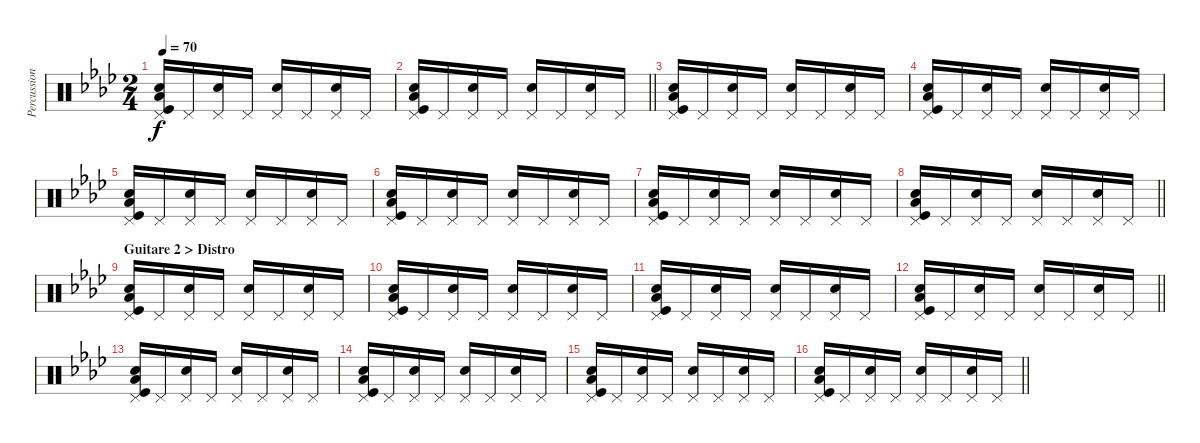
\track ("Percussions" "Percussion") {instrument percussion}
\staff {score}
\articulation defaults
\ts (2 4)
\tempo 70
\clef neutral
\ks fminor
("Electric Snare (hit)" "Kick (hit)" "Pedal Hi-Hat (hit)" "Low Floor Tom (hit)").16{dy f} "Pedal Hi-Hat (hit)".16 ("Electric Snare (hit)" "Pedal Hi-Hat (hit)").16 "Pedal Hi-Hat (hit)".16 ("Electric Snare (hit)" "Pedal Hi-Hat (hit)").16 "Pedal Hi-Hat (hit)".16 ("Electric Snare (hit)" "Pedal Hi-Hat (hit)").16 "Pedal Hi-Hat (hit)".16 |
\barLineRight lightlight
("Electric Snare (hit)" "Kick (hit)" "Pedal Hi-Hat (hit)" "Low Floor Tom (hit)").16 "Pedal Hi-Hat (hit)".16 ("Electric Snare (hit)" "Pedal Hi-Hat (hit)").16 "Pedal Hi-Hat (hit)".16 ("Electric Snare (hit)" "Pedal Hi-Hat (hit)").16 "Pedal Hi-Hat (hit)".16 ("Electric Snare (hit)" "Pedal Hi-Hat (hit)").16 "Pedal Hi-Hat (hit)".16 |
("Electric Snare (hit)" "Kick (hit)" "Pedal Hi-Hat (hit)" "Low Floor Tom (hit)").16 "Pedal Hi-Hat (hit)".16 ("Electric Snare (hit)" "Pedal Hi-Hat (hit)").16 "Pedal Hi-Hat (hit)".16 ("Electric Snare (hit)" "Pedal Hi-Hat (hit)").16 "Pedal Hi-Hat (hit)".16 ("Electric Snare (hit)" "Pedal Hi-Hat (hit)").16 "Pedal Hi-Hat (hit)".16 |
("Electric Snare (hit)" "Kick (hit)" "Pedal Hi-Hat (hit)" "Low Floor Tom (hit)").16 "Pedal Hi-Hat (hit)".16 ("Electric Snare (hit)" "Pedal Hi-Hat (hit)").16 "Pedal Hi-Hat (hit)".16 ("Electric Snare (hit)" "Pedal Hi-Hat (hit)").16 "Pedal Hi-Hat (hit)".16 ("Electric Snare (hit)" "Pedal Hi-Hat (hit)").16 "Pedal Hi-Hat (hit)".16 |
("Electric Snare (hit)" "Kick (hit)" "Pedal Hi-Hat (hit)" "Low Floor Tom (hit)").16 "Pedal Hi-Hat (hit)".16 ("Electric Snare (hit)" "Pedal Hi-Hat (hit)").16 "Pedal Hi-Hat (hit)".16 ("Electric Snare (hit)" "Pedal Hi-Hat (hit)").16 "Pedal Hi-Hat (hit)".16 ("Electric Snare (hit)" "Pedal Hi-Hat (hit)").16 "Pedal Hi-Hat (hit)".16 |
("Electric Snare (hit)" "Kick (hit)" "Pedal Hi-Hat (hit)" "Low Floor Tom (hit)").16 "Pedal Hi-Hat (hit)".16 ("Electric Snare (hit)" "Pedal Hi-Hat (hit)").16 "Pedal Hi-Hat (hit)".16 ("Electric Snare (hit)" "Pedal Hi-Hat (hit)").16 "Pedal Hi-Hat (hit)".16 ("Electric Snare (hit)" "Pedal Hi-Hat (hit)").16 "Pedal Hi-Hat (hit)".16 |
("Electric Snare (hit)" "Kick (hit)" "Pedal Hi-Hat (hit)" "Low Floor Tom (hit)").16 "Pedal Hi-Hat (hit)".16 ("Electric Snare (hit)" "Pedal Hi-Hat (hit)").16 "Pedal Hi-Hat (hit)".16 ("Electric Snare (hit)" "Pedal Hi-Hat (hit)").16 "Pedal Hi-Hat (hit)".16 ("Electric Snare (hit)" "Pedal Hi-Hat (hit)").16 "Pedal Hi-Hat (hit)".16 |
\barLineRight lightlight
("Electric Snare (hit)" "Kick (hit)" "Pedal Hi-Hat (hit)" "Low Floor Tom (hit)").16 "Pedal Hi-Hat (hit)".16 ("Electric Snare (hit)" "Pedal Hi-Hat (hit)").16 "Pedal Hi-Hat (hit)".16 ("Electric Snare (hit)" "Pedal Hi-Hat (hit)").16 "Pedal Hi-Hat (hit)".16 ("Electric Snare (hit)" "Pedal Hi-Hat (hit)").16 "Pedal Hi-Hat (hit)".16 |
\section ("" "Guitare 2 > Distro")
("Electric Snare (hit)" "Kick (hit)" "Pedal Hi-Hat (hit)" "Low Floor Tom (hit)").16{volume 10} "Pedal Hi-Hat (hit)".16 ("Electric Snare (hit)" "Pedal Hi-Hat (hit)").16 "Pedal Hi-Hat (hit)".16 ("Electric Snare (hit)" "Pedal Hi-Hat (hit)").16 "Pedal Hi-Hat (hit)".16 ("Electric Snare (hit)" "Pedal Hi-Hat (hit)").16 "Pedal Hi-Hat (hit)".16 |
("Electric Snare (hit)" "Kick (hit)" "Pedal Hi-Hat (hit)" "Low Floor Tom (hit)").16 "Pedal Hi-Hat (hit)".16 ("Electric Snare (hit)" "Pedal Hi-Hat (hit)").16 "Pedal Hi-Hat (hit)".16 ("Electric Snare (hit)" "Pedal Hi-Hat (hit)").16 "Pedal Hi-Hat (hit)".16 ("Electric Snare (hit)" "Pedal Hi-Hat (hit)").16 "Pedal Hi-Hat (hit)".16 |
("Electric Snare (hit)" "Kick (hit)" "Pedal Hi-Hat (hit)" "Low Floor Tom (hit)").16 "Pedal Hi-Hat (hit)".16 ("Electric Snare (hit)" "Pedal Hi-Hat (hit)").16 "Pedal Hi-Hat (hit)".16 ("Electric Snare (hit)" "Pedal Hi-Hat (hit)").16 "Pedal Hi-Hat (hit)".16 ("Electric Snare (hit)" "Pedal Hi-Hat (hit)").16 "Pedal Hi-Hat (hit)".16 |
\barLineRight lightlight
("Electric Snare (hit)" "Kick (hit)" "Pedal Hi-Hat (hit)" "Low Floor Tom (hit)").16 "Pedal Hi-Hat (hit)".16 ("Electric Snare (hit)" "Pedal Hi-Hat (hit)").16 "Pedal Hi-Hat (hit)".16 ("Electric Snare (hit)" "Pedal Hi-Hat (hit)").16 "Pedal Hi-Hat (hit)".16 ("Electric Snare (hit)" "Pedal Hi-Hat (hit)").16 "Pedal Hi-Hat (hit)".16 |
("Electric Snare (hit)" "Kick (hit)" "Pedal Hi-Hat (hit)" "Low Floor Tom (hit)").16 "Pedal Hi-Hat (hit)".16 ("Electric Snare (hit)" "Pedal Hi-Hat (hit)").16 "Pedal Hi-Hat (hit)".16 ("Electric Snare (hit)" "Pedal Hi-Hat (hit)").16 "Pedal Hi-Hat (hit)".16 ("Electric Snare (hit)" "Pedal Hi-Hat (hit)").16 "Pedal Hi-Hat (hit)".16 |
("Electric Snare (hit)" "Kick (hit)" "Pedal Hi-Hat (hit)" "Low Floor Tom (hit)").16 "Pedal Hi-Hat (hit)".16 ("Electric Snare (hit)" "Pedal Hi-Hat (hit)").16 "Pedal Hi-Hat (hit)".16 ("Electric Snare (hit)" "Pedal Hi-Hat (hit)").16 "Pedal Hi-Hat (hit)".16 ("Electric Snare (hit)" "Pedal Hi-Hat (hit)").16 "Pedal Hi-Hat (hit)".16 |
("Electric Snare (hit)" "Kick (hit)" "Pedal Hi-Hat (hit)" "Low Floor Tom (hit)").16 "Pedal Hi-Hat (hit)".16 ("Electric Snare (hit)" "Pedal Hi-Hat (hit)").16 "Pedal Hi-Hat (hit)".16 ("Electric Snare (hit)" "Pedal Hi-Hat (hit)").16 "Pedal Hi-Hat (hit)".16 ("Electric Snare (hit)" "Pedal Hi-Hat (hit)").16 "Pedal Hi-Hat (hit)".16 |
\barLineRight lightlight
("Electric Snare (hit)" "Kick (hit)" "Pedal Hi-Hat (hit)" "Low Floor Tom (hit)").16 "Pedal Hi-Hat (hit)".16 ("Electric Snare (hit)" "Pedal Hi-Hat (hit)").16 "Pedal Hi-Hat (hit)".16 ("Electric Snare (hit)" "Pedal Hi-Hat (hit)").16 "Pedal Hi-Hat (hit)".16 ("Electric Snare (hit)" "Pedal Hi-Hat (hit)").16 "Pedal Hi-Hat (hit)".16
